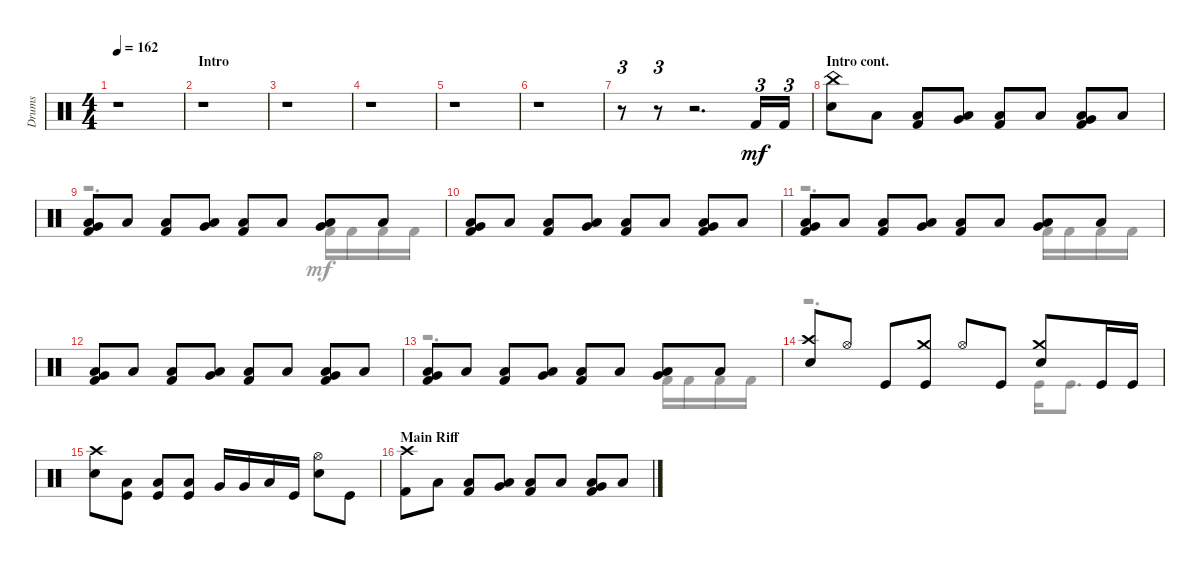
\track ("Drums" "Drums") {instrument percussion}
\staff {score}
\articulation defaults
\voice
\ts (4 4)
\tempo 162
\clef neutral
\ks aminor
r.1{dy mf} |
\section ("" "Intro")
r.1 |
r.1 |
r.1 |
r.1 |
r.1 |
r.8{tu (3 2)} r.8{tu (3 2)} r.2{d} "Kick (hit) 2".16{tu (3 2)} "Kick (hit) 2".16{tu (3 2)} |
\section ("" "Intro cont.")
("Snare (hit) 2" "China (hit)").8 "Low Floor Tom (hit)".8 ("Kick (hit) 2" "Low Floor Tom (hit)").8 ("Low Floor Tom (hit)" "Very Low Tom (hit)").8 ("Kick (hit) 2" "Low Floor Tom (hit)").8 "Low Floor Tom (hit)".8 ("Kick (hit) 2" "Low Floor Tom (hit)" "Very Low Tom (hit)").8 "Low Floor Tom (hit)".8 |
("Kick (hit) 2" "Low Floor Tom (hit)" "Very Low Tom (hit)").8 "Low Floor Tom (hit)".8 ("Kick (hit) 2" "Low Floor Tom (hit)").8 ("Low Floor Tom (hit)" "Very Low Tom (hit)").8 ("Kick (hit) 2" "Low Floor Tom (hit)").8 "Low Floor Tom (hit)".8 ("Low Floor Tom (hit)" "Very Low Tom (hit)").8 "Low Floor Tom (hit)".8 |
("Very Low Tom (hit)" "Kick (hit) 2" "Low Floor Tom (hit)").8 "Low Floor Tom (hit)".8 ("Low Floor Tom (hit)" "Kick (hit) 2").8 ("Low Floor Tom (hit)" "Very Low Tom (hit)").8 ("Kick (hit) 2" "Low Floor Tom (hit)").8 "Low Floor Tom (hit)".8 ("Low Floor Tom (hit)" "Very Low Tom (hit)" "Kick (hit) 2").8 "Low Floor Tom (hit)".8 |
("Kick (hit) 2" "Very Low Tom (hit)" "Low Floor Tom (hit)").8 "Low Floor Tom (hit)".8 ("Kick (hit) 2" "Low Floor Tom (hit)").8 ("Very Low Tom (hit)" "Low Floor Tom (hit)").8 ("Kick (hit) 2" "Low Floor Tom (hit)").8 "Low Floor Tom (hit)".8 ("Low Floor Tom (hit)" "Very Low Tom (hit)").8 "Low Floor Tom (hit)".8 |
("Low Floor Tom (hit)" "Very Low Tom (hit)" "Kick (hit) 2").8 "Low Floor Tom (hit)".8 ("Kick (hit) 2" "Low Floor Tom (hit)").8 ("Very Low Tom (hit)" "Low Floor Tom (hit)").8 ("Low Floor Tom (hit)" "Kick (hit) 2").8 "Low Floor Tom (hit)".8 ("Very Low Tom (hit)" "Low Floor Tom (hit)" "Kick (hit) 2").8 "Low Floor Tom (hit)".8 |
("Very Low Tom (hit)" "Low Floor Tom (hit)" "Kick (hit) 2").8 "Low Floor Tom (hit)".8 ("Low Floor Tom (hit)" "Kick (hit) 2").8 ("Low Floor Tom (hit)" "Very Low Tom (hit)").8 ("Kick (hit) 2" "Low Floor Tom (hit)").8 "Low Floor Tom (hit)".8 ("Very Low Tom (hit)" "Low Floor Tom (hit)").8 "Low Floor Tom (hit)".8 |
("Snare (hit) 2" "Crash high (hit)").8 "Hi-Hat (open)".8 "Kick (hit)".8 ("Crash medium (hit)" "Kick (hit)").8 "Hi-Hat (open)".8 "Kick (hit)".8 ("Crash medium (hit)" "Snare (hit) 2").8 "Kick (hit)".16 "Kick (hit)".16 |
("Crash high (hit)" "Snare (hit) 2").8 ("Kick (hit)" "Low Floor Tom (hit)").8 ("Low Floor Tom (hit)" "Kick (hit)").8 ("Low Floor Tom (hit)" "Kick (hit)").8 "Very Low Tom (hit)".16 "Very Low Tom (hit)".16 "Low Floor Tom (hit)".16 "Kick (hit)".16 ("Snare (hit) 2" "Hi-Hat (open)").8 "Kick (hit)".8 |
\section ("" "Main Riff")
("Crash high (hit)" "Kick (hit) 2").8 "Low Floor Tom (hit)".8 ("Low Floor Tom (hit)" "Kick (hit) 2").8 ("Low Floor Tom (hit)" "Very Low Tom (hit)").8 ("Kick (hit) 2" "Low Floor Tom (hit)").8 "Low Floor Tom (hit)".8 ("Very Low Tom (hit)" "Low Floor Tom (hit)" "Kick (hit) 2").8 "Low Floor Tom (hit)".8
\voice
\clef neutral
\ottava regular
\simile none
\ks aminor
|
|
|
|
|
|
|
|
r.2{d} "Kick (hit) 2".16 "Kick (hit) 2".16 "Kick (hit) 2".16 "Kick (hit) 2".16 |
|
r.2{d} "Kick (hit) 2".16 "Kick (hit) 2".16 "Kick (hit) 2".16 "Kick (hit) 2".16 |
|
r.2{d} "Kick (hit) 2".16 "Kick (hit) 2".16 "Kick (hit) 2".16 "Kick (hit) 2".16 |
r.2{d} "Kick (hit)".16 "Kick (hit)".8{d} |
|
